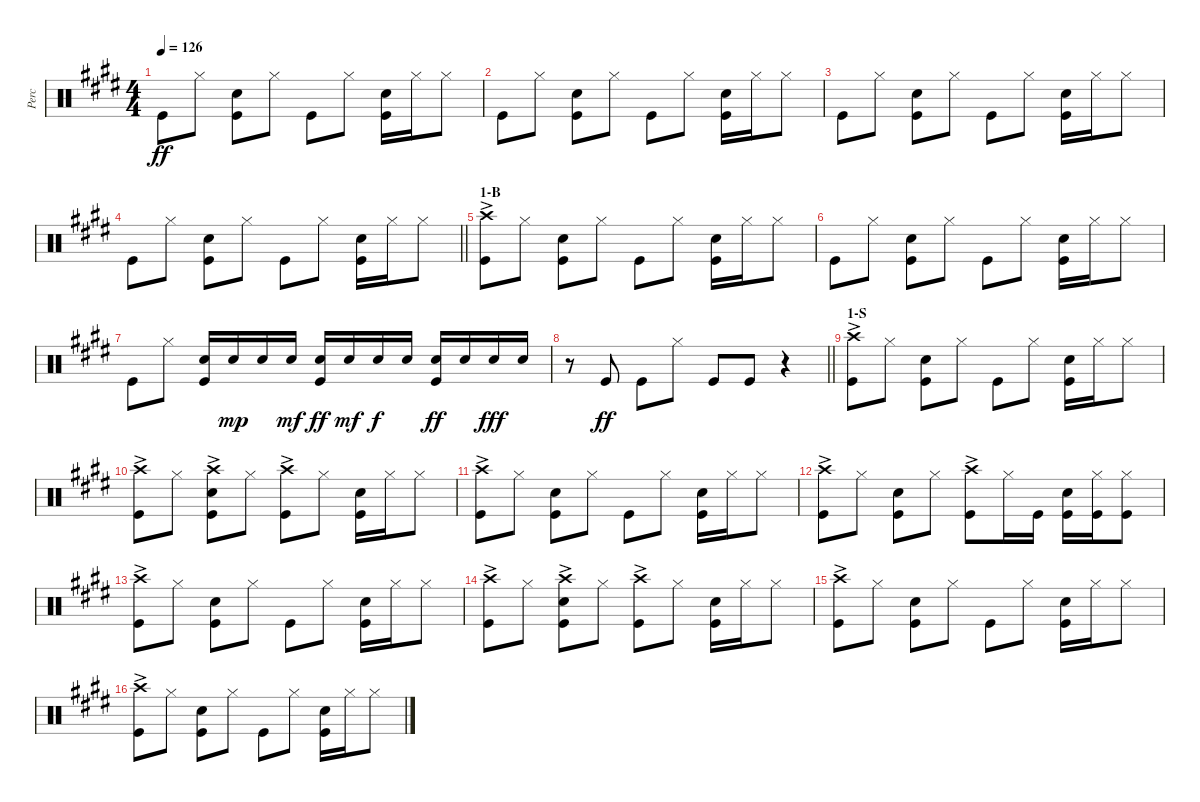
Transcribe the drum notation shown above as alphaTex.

\track ("Perc" "Perc") {instrument percussion}
\staff {score}
\articulation defaults
\ts (4 4)
\tempo 126
\clef neutral
\ks e "Kick (hit)".8{dy ff} "Hi-Hat (closed)".8
("Snare (hit) 2" "Kick (hit)").8 "Hi-Hat (closed)".8 "Kick (hit)".8 "Hi-Hat (closed)".8 ("Snare (hit) 2" "Kick (hit)").16 "Hi-Hat (closed)".16 "Hi-Hat (closed)".8 |
"Kick (hit)".8 "Hi-Hat (closed)".8 ("Snare (hit) 2" "Kick (hit)").8 "Hi-Hat (closed)".8 "Kick (hit)".8 "Hi-Hat (closed)".8 ("Snare (hit) 2" "Kick (hit)").16 "Hi-Hat (closed)".16 "Hi-Hat (closed)".8 |
"Kick (hit)".8 "Hi-Hat (closed)".8 ("Snare (hit) 2" "Kick (hit)").8 "Hi-Hat (closed)".8 "Kick (hit)".8 "Hi-Hat (closed)".8 ("Snare (hit) 2" "Kick (hit)").16 "Hi-Hat (closed)".16 "Hi-Hat (closed)".8 |
\barLineRight lightlight "Kick (hit)".8 "Hi-Hat (closed)".8
("Snare (hit) 2" "Kick (hit)").8 "Hi-Hat (closed)".8 "Kick (hit)".8 "Hi-Hat (closed)".8 ("Snare (hit) 2" "Kick (hit)").16 "Hi-Hat (closed)".16 "Hi-Hat (closed)".8 |
\section ("" "1-B")
("Crash high (hit)"{ac} "Kick (hit)").8 "Hi-Hat (closed)".8 ("Snare (hit) 2" "Kick (hit)").8 "Hi-Hat (closed)".8 "Kick (hit)".8 "Hi-Hat (closed)".8 ("Snare (hit) 2" "Kick (hit)").16 "Hi-Hat (closed)".16 "Hi-Hat (closed)".8 |
"Kick (hit)".8 "Hi-Hat (closed)".8 ("Snare (hit) 2" "Kick (hit)").8 "Hi-Hat (closed)".8 "Kick (hit)".8 "Hi-Hat (closed)".8 ("Snare (hit) 2" "Kick (hit)").16 "Hi-Hat (closed)".16 "Hi-Hat (closed)".8 |
"Kick (hit)".8 "Hi-Hat (closed)".8 ("Snare (hit) 2" "Kick (hit)").16 "Snare (hit) 2".16{dy mp} "Snare (hit) 2".16 "Snare (hit) 2".16{dy mf} ("Snare (hit) 2" "Kick (hit)").16{dy ff} "Snare (hit) 2".16{dy mf} "Snare (hit) 2".16{dy f} "Snare (hit) 2".16 ("Snare (hit) 2" "Kick (hit)").16{dy ff} "Snare (hit) 2".16 "Snare (hit) 2".16{dy fff} "Snare (hit) 2".16 |
\barLineRight lightlight
r.8 "Kick (hit)".8{dy ff} "Kick (hit)".8 "Hi-Hat (closed)".8 "Kick (hit)".8 "Kick (hit)".8 r.4 |
\section ("" "1-S")
("Crash high (hit)"{ac} "Kick (hit)").8 "Hi-Hat (closed)".8 ("Snare (hit) 2" "Kick (hit)").8 "Hi-Hat (closed)".8 "Kick (hit)".8 "Hi-Hat (closed)".8 ("Snare (hit) 2" "Kick (hit)").16 "Hi-Hat (closed)".16 "Hi-Hat (closed)".8 |
("Crash high (hit)"{ac} "Kick (hit)").8 "Hi-Hat (closed)".8 ("Crash high (hit)"{ac} "Snare (hit) 2" "Kick (hit)").8 "Hi-Hat (closed)".8 ("Crash high (hit)"{ac} "Kick (hit)").8 "Hi-Hat (closed)".8 ("Snare (hit) 2" "Kick (hit)").16 "Hi-Hat (closed)".16 "Hi-Hat (closed)".8 |
("Crash high (hit)"{ac} "Kick (hit)").8 "Hi-Hat (closed)".8 ("Snare (hit) 2" "Kick (hit)").8 "Hi-Hat (closed)".8 "Kick (hit)".8 "Hi-Hat (closed)".8 ("Snare (hit) 2" "Kick (hit)").16 "Hi-Hat (closed)".16 "Hi-Hat (closed)".8 |
("Crash high (hit)"{ac} "Kick (hit)").8 "Hi-Hat (closed)".8 ("Snare (hit) 2" "Kick (hit)").8 "Hi-Hat (closed)".8 ("Crash high (hit)"{ac} "Kick (hit)").8 "Hi-Hat (closed)".16 "Kick (hit)".16 ("Snare (hit) 2" "Kick (hit)").16 ("Hi-Hat (closed)" "Kick (hit)").16 ("Hi-Hat (closed)" "Kick (hit)").8 |
("Crash high (hit)"{ac} "Kick (hit)").8 "Hi-Hat (closed)".8 ("Snare (hit) 2" "Kick (hit)").8 "Hi-Hat (closed)".8 "Kick (hit)".8 "Hi-Hat (closed)".8 ("Snare (hit) 2" "Kick (hit)").16 "Hi-Hat (closed)".16 "Hi-Hat (closed)".8 |
("Crash high (hit)"{ac} "Kick (hit)").8 "Hi-Hat (closed)".8 ("Crash high (hit)"{ac} "Snare (hit) 2" "Kick (hit)").8 "Hi-Hat (closed)".8 ("Crash high (hit)"{ac} "Kick (hit)").8 "Hi-Hat (closed)".8 ("Snare (hit) 2" "Kick (hit)").16 "Hi-Hat (closed)".16 "Hi-Hat (closed)".8 |
("Crash high (hit)"{ac} "Kick (hit)").8 "Hi-Hat (closed)".8 ("Snare (hit) 2" "Kick (hit)").8 "Hi-Hat (closed)".8 "Kick (hit)".8 "Hi-Hat (closed)".8 ("Snare (hit) 2" "Kick (hit)").16 "Hi-Hat (closed)".16 "Hi-Hat (closed)".8 |
("Crash high (hit)"{ac} "Kick (hit)").8 "Hi-Hat (closed)".8 ("Snare (hit) 2" "Kick (hit)").8 "Hi-Hat (closed)".8 "Kick (hit)".8 "Hi-Hat (closed)".8 ("Snare (hit) 2" "Kick (hit)").16 "Hi-Hat (closed)".16 "Hi-Hat (closed)".8
